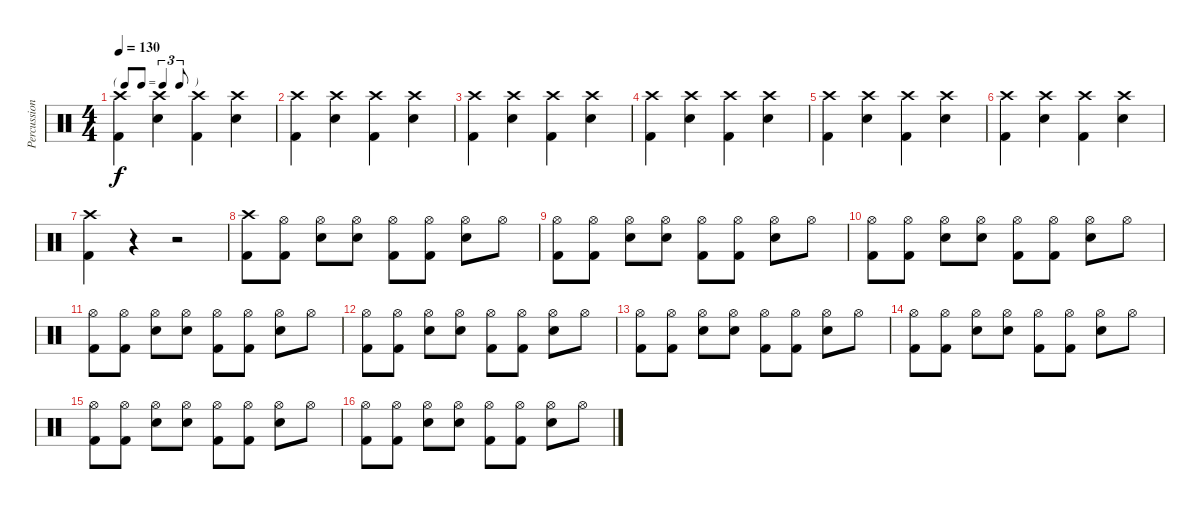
\track ("Percussions" "Percussion") {instrument percussion}
\staff {score}
\articulation defaults
\ts (4 4)
\tf triplet8th
\tempo 130
\clef neutral
\ks c
("Crash high (hit)" "Kick (hit) 2").4{dy f} ("Crash high (hit)" "Electric Snare (hit)").4 ("Crash high (hit)" "Kick (hit) 2").4 ("Crash high (hit)" "Electric Snare (hit)").4 |
("Crash high (hit)" "Kick (hit) 2").4 ("Crash high (hit)" "Electric Snare (hit)").4 ("Crash high (hit)" "Kick (hit) 2").4 ("Crash high (hit)" "Electric Snare (hit)").4 |
("Crash high (hit)" "Kick (hit) 2").4 ("Crash high (hit)" "Electric Snare (hit)").4 ("Crash high (hit)" "Kick (hit) 2").4 ("Crash high (hit)" "Electric Snare (hit)").4 |
("Crash high (hit)" "Kick (hit) 2").4 ("Crash high (hit)" "Electric Snare (hit)").4 ("Crash high (hit)" "Kick (hit) 2").4 ("Crash high (hit)" "Electric Snare (hit)").4 |
("Crash high (hit)" "Kick (hit) 2").4 ("Crash high (hit)" "Electric Snare (hit)").4 ("Crash high (hit)" "Kick (hit) 2").4 ("Crash high (hit)" "Electric Snare (hit)").4 |
("Crash high (hit)" "Kick (hit) 2").4 ("Crash high (hit)" "Electric Snare (hit)").4 ("Crash high (hit)" "Kick (hit) 2").4 ("Crash high (hit)" "Electric Snare (hit)").4 |
("Crash high (hit)" "Kick (hit) 2").4 r.4 r.2 |
("Crash high (hit)" "Kick (hit) 2").8 ("Hi-Hat (open)" "Kick (hit) 2").8 ("Hi-Hat (open)" "Electric Snare (hit)").8 ("Hi-Hat (open)" "Electric Snare (hit)").8 ("Hi-Hat (open)" "Kick (hit) 2").8 ("Hi-Hat (open)" "Kick (hit) 2").8 ("Hi-Hat (open)" "Electric Snare (hit)").8 "Hi-Hat (open)".8 |
("Hi-Hat (open)" "Kick (hit) 2").8 ("Hi-Hat (open)" "Kick (hit) 2").8 ("Hi-Hat (open)" "Electric Snare (hit)").8 ("Hi-Hat (open)" "Electric Snare (hit)").8 ("Hi-Hat (open)" "Kick (hit) 2").8 ("Hi-Hat (open)" "Kick (hit) 2").8 ("Hi-Hat (open)" "Electric Snare (hit)").8 "Hi-Hat (open)".8 |
("Hi-Hat (open)" "Kick (hit) 2").8 ("Hi-Hat (open)" "Kick (hit) 2").8 ("Hi-Hat (open)" "Electric Snare (hit)").8 ("Hi-Hat (open)" "Electric Snare (hit)").8 ("Hi-Hat (open)" "Kick (hit) 2").8 ("Hi-Hat (open)" "Kick (hit) 2").8 ("Hi-Hat (open)" "Electric Snare (hit)").8 "Hi-Hat (open)".8 |
("Hi-Hat (open)" "Kick (hit) 2").8 ("Hi-Hat (open)" "Kick (hit) 2").8 ("Hi-Hat (open)" "Electric Snare (hit)").8 ("Hi-Hat (open)" "Electric Snare (hit)").8 ("Hi-Hat (open)" "Kick (hit) 2").8 ("Hi-Hat (open)" "Kick (hit) 2").8 ("Hi-Hat (open)" "Electric Snare (hit)").8 "Hi-Hat (open)".8 |
("Hi-Hat (open)" "Kick (hit) 2").8 ("Hi-Hat (open)" "Kick (hit) 2").8 ("Hi-Hat (open)" "Electric Snare (hit)").8 ("Hi-Hat (open)" "Electric Snare (hit)").8 ("Hi-Hat (open)" "Kick (hit) 2").8 ("Hi-Hat (open)" "Kick (hit) 2").8 ("Hi-Hat (open)" "Electric Snare (hit)").8 "Hi-Hat (open)".8 |
("Hi-Hat (open)" "Kick (hit) 2").8 ("Hi-Hat (open)" "Kick (hit) 2").8 ("Hi-Hat (open)" "Electric Snare (hit)").8 ("Hi-Hat (open)" "Electric Snare (hit)").8 ("Hi-Hat (open)" "Kick (hit) 2").8 ("Hi-Hat (open)" "Kick (hit) 2").8 ("Hi-Hat (open)" "Electric Snare (hit)").8 "Hi-Hat (open)".8 |
("Hi-Hat (open)" "Kick (hit) 2").8 ("Hi-Hat (open)" "Kick (hit) 2").8 ("Hi-Hat (open)" "Electric Snare (hit)").8 ("Hi-Hat (open)" "Electric Snare (hit)").8 ("Hi-Hat (open)" "Kick (hit) 2").8 ("Hi-Hat (open)" "Kick (hit) 2").8 ("Hi-Hat (open)" "Electric Snare (hit)").8 "Hi-Hat (open)".8 |
("Hi-Hat (open)" "Kick (hit) 2").8 ("Hi-Hat (open)" "Kick (hit) 2").8 ("Hi-Hat (open)" "Electric Snare (hit)").8 ("Hi-Hat (open)" "Electric Snare (hit)").8 ("Hi-Hat (open)" "Kick (hit) 2").8 ("Hi-Hat (open)" "Kick (hit) 2").8 ("Hi-Hat (open)" "Electric Snare (hit)").8 "Hi-Hat (open)".8 |
("Hi-Hat (open)" "Kick (hit) 2").8 ("Hi-Hat (open)" "Kick (hit) 2").8 ("Hi-Hat (open)" "Electric Snare (hit)").8 ("Hi-Hat (open)" "Electric Snare (hit)").8 ("Hi-Hat (open)" "Kick (hit) 2").8 ("Hi-Hat (open)" "Kick (hit) 2").8 ("Hi-Hat (open)" "Electric Snare (hit)").8 "Hi-Hat (open)".8
